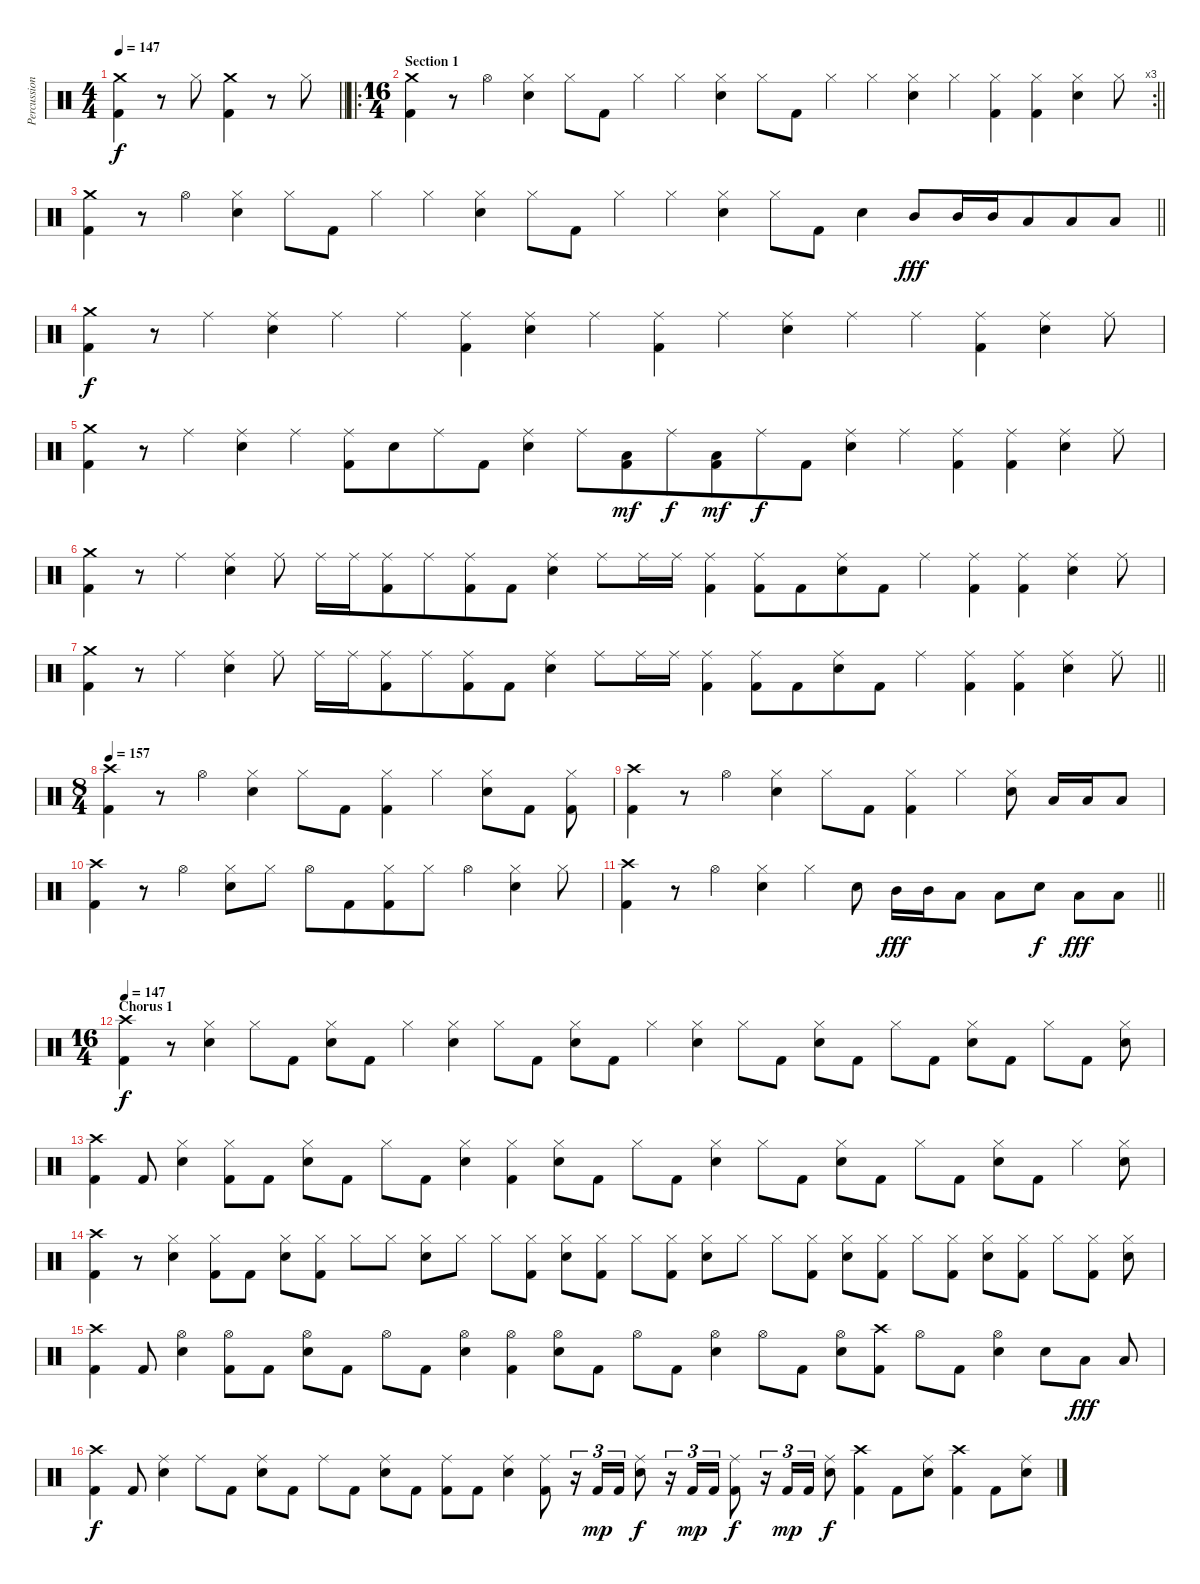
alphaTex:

\track ("Percussion" "Percussion") {instrument percussion}
\staff {score}
\articulation defaults
\ts (4 4)
\tempo 147
\clef neutral
\barLineRight lightlight
\ks c
("Crash medium (hit)" "Kick (hit) 2").4{dy f} r.8 "Hi-Hat (closed)".8 ("Crash medium (hit)" "Kick (hit) 2").4 r.8 "Hi-Hat (closed)".8 |
\ro
\rc 3
\ts (16 4)
\section ("" "Section 1")
\barLineRight lightlight
("Crash medium (hit)" "Kick (hit) 2").4 r.8 "Hi-Hat (open)".4 ("Hi-Hat (closed)" "Electric Snare (hit)").4 "Hi-Hat (closed)".8{beam merge} "Kick (hit) 2".8 "Hi-Hat (closed)".4 "Hi-Hat (closed)".4 ("Hi-Hat (closed)" "Electric Snare (hit)").4 "Hi-Hat (closed)".8{beam merge} "Kick (hit) 2".8 "Hi-Hat (closed)".4 "Hi-Hat (closed)".4 ("Hi-Hat (closed)" "Electric Snare (hit)").4 "Hi-Hat (closed)".4 ("Hi-Hat (closed)" "Kick (hit) 2").4 ("Hi-Hat (closed)" "Kick (hit) 2").4 ("Hi-Hat (closed)" "Electric Snare (hit)").4 "Hi-Hat (closed)".8 |
\barLineRight lightlight
("Crash medium (hit)" "Kick (hit) 2").4 r.8 "Hi-Hat (open)".4 ("Hi-Hat (closed)" "Electric Snare (hit)").4 "Hi-Hat (closed)".8{beam merge} "Kick (hit) 2".8 "Hi-Hat (closed)".4 "Hi-Hat (closed)".4 ("Hi-Hat (closed)" "Electric Snare (hit)").4 "Hi-Hat (closed)".8{beam merge} "Kick (hit) 2".8 "Hi-Hat (closed)".4 "Hi-Hat (closed)".4 ("Hi-Hat (closed)" "Electric Snare (hit)").4 "Hi-Hat (closed)".8{beam merge} "Kick (hit) 2".8 "Electric Snare (hit)".4 "Mid Tom (hit)".8{dy fff beam merge} "Mid Tom (hit)".16 "Mid Tom (hit)".16{beam merge} "Low Tom (hit)".8{beam merge} "Low Tom (hit)".8{beam merge} "Low Tom (hit)".8 |
("Crash medium (hit)" "Kick (hit) 2").4{dy f} r.8 "Ride (middle)".4 ("Ride (middle)" "Electric Snare (hit)").4 "Ride (middle)".4 "Ride (middle)".4 ("Ride (middle)" "Kick (hit) 2").4 ("Ride (middle)" "Electric Snare (hit)").4 "Ride (middle)".4 ("Ride (middle)" "Kick (hit) 2").4 "Ride (middle)".4 ("Ride (middle)" "Electric Snare (hit)").4 "Ride (middle)".4 "Ride (middle)".4 ("Ride (middle)" "Kick (hit) 2").4 ("Ride (middle)" "Electric Snare (hit)").4 "Ride (middle)".8 |
("Crash medium (hit)" "Kick (hit) 2").4 r.8 "Ride (middle)".4 ("Ride (middle)" "Electric Snare (hit)").4 "Ride (middle)".4 ("Ride (middle)" "Kick (hit) 2").8{beam merge} "Electric Snare (hit)".8{beam merge} "Ride (middle)".8{beam merge} "Kick (hit) 2".8 ("Ride (middle)" "Electric Snare (hit)").4 "Ride (middle)".8{beam merge} ("Low Tom (hit)" "Kick (hit) 2").8{dy mf} "Ride (middle)".8{dy f beam merge} ("Low Tom (hit)" "Kick (hit) 2").8{dy mf} "Ride (middle)".8{dy f beam merge} "Kick (hit) 2".8 ("Ride (middle)" "Electric Snare (hit)").4 "Ride (middle)".4 ("Ride (middle)" "Kick (hit) 2").4 ("Ride (middle)" "Kick (hit) 2").4 ("Ride (middle)" "Electric Snare (hit)").4 "Ride (middle)".8 |
("Crash medium (hit)" "Kick (hit) 2").4 r.8 "Ride (middle)".4 ("Ride (middle)" "Electric Snare (hit)").4 "Ride (middle)".8 "Ride (middle)".16 "Ride (middle)".16{beam merge} ("Ride (middle)" "Kick (hit) 2").8{beam merge} "Ride (middle)".8{beam merge} ("Ride (middle)" "Kick (hit) 2").8{beam merge} "Kick (hit) 2".8 ("Ride (middle)" "Electric Snare (hit)").4 "Ride (middle)".8{beam merge} "Ride (middle)".16 "Ride (middle)".16 ("Ride (middle)" "Kick (hit) 2").4 ("Ride (middle)" "Kick (hit) 2").8{beam merge} "Kick (hit) 2".8{beam merge} ("Ride (middle)" "Electric Snare (hit)").8{beam merge} "Kick (hit) 2".8 "Ride (middle)".4 ("Ride (middle)" "Kick (hit) 2").4 ("Ride (middle)" "Kick (hit) 2").4 ("Ride (middle)" "Electric Snare (hit)").4 "Ride (middle)".8 |
\barLineRight lightlight
("Crash medium (hit)" "Kick (hit) 2").4 r.8 "Ride (middle)".4 ("Ride (middle)" "Electric Snare (hit)").4 "Ride (middle)".8 "Ride (middle)".16 "Ride (middle)".16{beam merge} ("Ride (middle)" "Kick (hit) 2").8{beam merge} "Ride (middle)".8{beam merge} ("Ride (middle)" "Kick (hit) 2").8{beam merge} "Kick (hit) 2".8 ("Ride (middle)" "Electric Snare (hit)").4 "Ride (middle)".8{beam merge} "Ride (middle)".16 "Ride (middle)".16 ("Ride (middle)" "Kick (hit) 2").4 ("Ride (middle)" "Kick (hit) 2").8{beam merge} "Kick (hit) 2".8{beam merge} ("Ride (middle)" "Electric Snare (hit)").8{beam merge} "Kick (hit) 2".8 "Ride (middle)".4 ("Ride (middle)" "Kick (hit) 2").4 ("Ride (middle)" "Kick (hit) 2").4 ("Ride (middle)" "Electric Snare (hit)").4 "Ride (middle)".8 |
\ts (8 4)
\tempo 157
("Crash high (hit)" "Kick (hit) 2").4 r.8 "Hi-Hat (open)".4 ("Hi-Hat (closed)" "Electric Snare (hit)").4 "Hi-Hat (closed)".8{beam merge} "Kick (hit) 2".8 ("Hi-Hat (closed)" "Kick (hit) 2").4 "Hi-Hat (closed)".4 ("Hi-Hat (closed)" "Electric Snare (hit)").8{beam merge} "Kick (hit) 2".8{beam split} ("Hi-Hat (closed)" "Kick (hit) 2").8 |
("Crash high (hit)" "Kick (hit) 2").4 r.8 "Hi-Hat (open)".4 ("Hi-Hat (closed)" "Electric Snare (hit)").4 "Hi-Hat (closed)".8{beam merge} "Kick (hit) 2".8 ("Hi-Hat (closed)" "Kick (hit) 2").4 "Hi-Hat (closed)".4 ("Hi-Hat (closed)" "Electric Snare (hit)").8 "Low Tom (hit)".16{beam merge} "Low Tom (hit)".16{beam merge} "Low Tom (hit)".8 |
("Crash high (hit)" "Kick (hit) 2").4 r.8 "Hi-Hat (open)".4 ("Hi-Hat (closed)" "Electric Snare (hit)").8{beam merge} "Hi-Hat (closed)".8{beam split} "Hi-Hat (open)".8{beam merge} "Kick (hit) 2".8 ("Hi-Hat (closed)" "Kick (hit) 2").8{beam merge} "Hi-Hat (closed)".8 "Hi-Hat (open)".4 ("Hi-Hat (closed)" "Electric Snare (hit)").4 "Hi-Hat (closed)".8 |
\barLineRight lightlight
("Crash high (hit)" "Kick (hit) 2").4 r.8 "Hi-Hat (open)".4 ("Hi-Hat (closed)" "Electric Snare (hit)").4 "Hi-Hat (closed)".4 "Electric Snare (hit)".8{beam Down} "Mid Tom (hit)".16{dy fff beam Down} "Mid Tom (hit)".16{beam Down beam merge} "Low Tom (hit)".8{beam Down} "Low Tom (hit)".8{beam Down beam merge} "Electric Snare (hit)".8{dy f beam Down beam split} "Low Tom (hit)".8{dy fff beam Down beam merge} "Low Tom (hit)".8{beam Down} |
\ts (16 4)
\section ("" "Chorus 1")
\tempo 147
("Crash high (hit)" "Kick (hit) 2").4{dy f} r.8 ("Hi-Hat (closed)" "Electric Snare (hit)").4 "Hi-Hat (closed)".8{beam merge} "Kick (hit) 2".8{beam split} ("Hi-Hat (closed)" "Electric Snare (hit)").8{beam merge} "Kick (hit) 2".8 "Hi-Hat (closed)".4 ("Hi-Hat (closed)" "Electric Snare (hit)").4 "Hi-Hat (closed)".8{beam merge} "Kick (hit) 2".8{beam split} ("Hi-Hat (closed)" "Electric Snare (hit)").8{beam merge} "Kick (hit) 2".8 "Hi-Hat (closed)".4 ("Hi-Hat (closed)" "Electric Snare (hit)").4 "Hi-Hat (closed)".8{beam merge} "Kick (hit) 2".8{beam split} ("Hi-Hat (closed)" "Electric Snare (hit)").8{beam merge} "Kick (hit) 2".8{beam split} "Hi-Hat (closed)".8{beam merge} "Kick (hit) 2".8{beam split} ("Hi-Hat (closed)" "Electric Snare (hit)").8{beam merge} "Kick (hit) 2".8{beam split} "Hi-Hat (closed)".8{beam merge} "Kick (hit) 2".8{beam split} ("Hi-Hat (closed)" "Electric Snare (hit)").8 |
("Crash high (hit)" "Kick (hit) 2").4 "Kick (hit) 2".8 ("Hi-Hat (closed)" "Electric Snare (hit)").4 ("Hi-Hat (closed)" "Kick (hit) 2").8{beam merge} "Kick (hit) 2".8{beam split} ("Hi-Hat (closed)" "Electric Snare (hit)").8{beam merge} "Kick (hit) 2".8{beam split} "Hi-Hat (closed)".8{beam merge} "Kick (hit) 2".8 ("Hi-Hat (closed)" "Electric Snare (hit)").4 ("Hi-Hat (closed)" "Kick (hit) 2").4 ("Hi-Hat (closed)" "Electric Snare (hit)").8{beam merge} "Kick (hit) 2".8{beam split} "Hi-Hat (closed)".8{beam merge} "Kick (hit) 2".8 ("Hi-Hat (closed)" "Electric Snare (hit)").4 "Hi-Hat (closed)".8{beam merge} "Kick (hit) 2".8{beam split} ("Hi-Hat (closed)" "Electric Snare (hit)").8{beam merge} "Kick (hit) 2".8{beam split} "Hi-Hat (closed)".8{beam merge} "Kick (hit) 2".8{beam split} ("Hi-Hat (closed)" "Electric Snare (hit)").8{beam merge} "Kick (hit) 2".8 "Hi-Hat (closed)".4 ("Hi-Hat (closed)" "Electric Snare (hit)").8 |
("Crash high (hit)" "Kick (hit) 2").4 r.8 ("Hi-Hat (closed)" "Electric Snare (hit)").4 ("Hi-Hat (closed)" "Kick (hit) 2").8{beam merge} "Kick (hit) 2".8{beam split} ("Hi-Hat (closed)" "Electric Snare (hit)").8{beam merge} ("Hi-Hat (closed)" "Kick (hit) 2").8{beam split} "Hi-Hat (closed)".8{beam merge} "Hi-Hat (closed)".8{beam split} ("Hi-Hat (closed)" "Electric Snare (hit)").8{beam merge} "Hi-Hat (closed)".8{beam split} "Hi-Hat (closed)".8{beam merge} ("Hi-Hat (closed)" "Kick (hit) 2").8{beam split} ("Hi-Hat (closed)" "Electric Snare (hit)").8{beam merge} ("Hi-Hat (closed)" "Kick (hit) 2").8{beam split} "Hi-Hat (closed)".8{beam merge} ("Hi-Hat (closed)" "Kick (hit) 2").8{beam split} ("Hi-Hat (closed)" "Electric Snare (hit)").8{beam merge} "Hi-Hat (closed)".8{beam split} "Hi-Hat (closed)".8{beam merge} ("Hi-Hat (closed)" "Kick (hit) 2").8{beam split} ("Hi-Hat (closed)" "Electric Snare (hit)").8{beam merge} ("Hi-Hat (closed)" "Kick (hit) 2").8{beam split} "Hi-Hat (closed)".8{beam merge} ("Hi-Hat (closed)" "Kick (hit) 2").8{beam split} ("Hi-Hat (closed)" "Electric Snare (hit)").8{beam merge} ("Hi-Hat (closed)" "Kick (hit) 2").8{beam split} "Hi-Hat (closed)".8{beam merge} ("Hi-Hat (closed)" "Kick (hit) 2").8{beam split} ("Hi-Hat (closed)" "Electric Snare (hit)").8 |
("Crash high (hit)" "Kick (hit) 2").4 "Kick (hit) 2".8 ("Hi-Hat (open)" "Electric Snare (hit)").4 ("Hi-Hat (open)" "Kick (hit) 2").8{beam merge} "Kick (hit) 2".8{beam split} ("Hi-Hat (open)" "Electric Snare (hit)").8{beam merge} "Kick (hit) 2".8{beam split} "Hi-Hat (open)".8{beam merge} "Kick (hit) 2".8 ("Hi-Hat (open)" "Electric Snare (hit)").4 ("Hi-Hat (open)" "Kick (hit) 2").4 ("Hi-Hat (open)" "Electric Snare (hit)").8{beam merge} "Kick (hit) 2".8{beam split} "Hi-Hat (open)".8{beam merge} "Kick (hit) 2".8 ("Hi-Hat (open)" "Electric Snare (hit)").4 "Hi-Hat (open)".8{beam merge} "Kick (hit) 2".8{beam split} ("Hi-Hat (open)" "Electric Snare (hit)").8{beam merge} ("Crash high (hit)" "Kick (hit) 2").8{beam split} "Hi-Hat (open)".8{beam merge} "Kick (hit) 2".8 ("Hi-Hat (open)" "Electric Snare (hit)").4{beam merge} "Electric Snare (hit)".8{beam merge} "Low Tom (hit)".8{dy fff beam split} "Low Tom (hit)".8 |
("Crash high (hit)" "Kick (hit) 2").4{dy f} "Kick (hit) 2".8 ("Ride (middle)" "Electric Snare (hit)").4 "Ride (middle)".8{beam merge} "Kick (hit) 2".8{beam split} ("Ride (middle)" "Electric Snare (hit)").8{beam merge} "Kick (hit) 2".8{beam split} "Ride (middle)".8{beam merge} "Kick (hit) 2".8{beam split} ("Ride (middle)" "Electric Snare (hit)").8{beam merge} "Kick (hit) 2".8{beam split} ("Ride (middle)" "Kick (hit) 2").8{beam merge} "Kick (hit) 2".8 ("Ride (middle)" "Electric Snare (hit)").4 ("Ride (middle)" "Kick (hit) 2").8 r.16{tu (3 2)} "Kick (hit) 2".16{tu (3 2) dy mp} "Kick (hit) 2".16{tu (3 2)} ("Ride (middle)" "Electric Snare (hit)").8{dy f} r.16{tu (3 2)} "Kick (hit) 2".16{tu (3 2) dy mp} "Kick (hit) 2".16{tu (3 2)} ("Ride (middle)" "Kick (hit) 2").8{dy f} r.16{tu (3 2)} "Kick (hit) 2".16{tu (3 2) dy mp} "Kick (hit) 2".16{tu (3 2)} ("Ride (middle)" "Electric Snare (hit)").8{dy f} ("Crash high (hit)" "Kick (hit) 2").4 "Kick (hit) 2".8 ("Ride (middle)" "Electric Snare (hit)").8 ("Crash high (hit)" "Kick (hit) 2").4 "Kick (hit) 2".8 ("Ride (middle)" "Electric Snare (hit)").8
